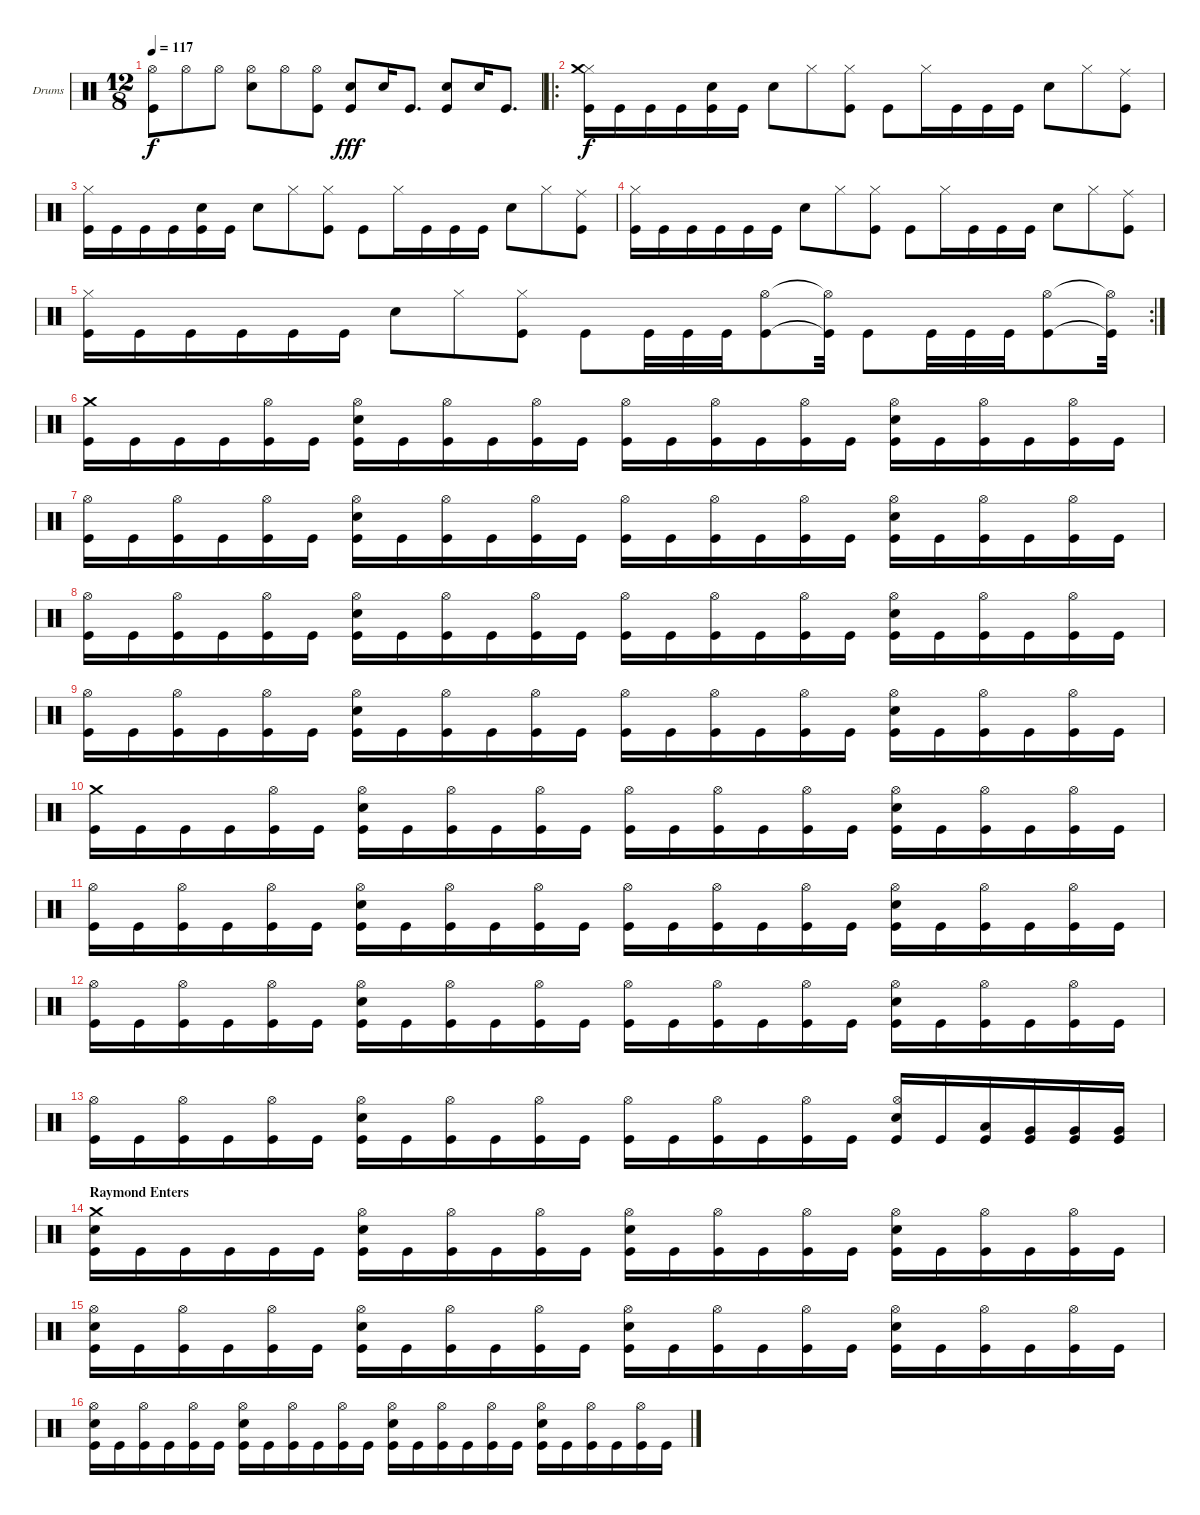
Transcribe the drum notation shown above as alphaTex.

\defaultSystemsLayout 4
\bracketExtendMode groupsimilarinstruments
\firstSystemTrackNameOrientation horizontal
\otherSystemsTrackNameOrientation horizontal
\track ("Drumkit" "Drums") {instrument percussion}
\staff {score}
\articulation defaults
\ts (12 8)
\tempo 117
\clef neutral
\scale
0.333333
\ks c
("Kick (hit)" "Hi-Hat (open)").8{dy f} "Hi-Hat (open)".8 "Hi-Hat (open)".8 ("Snare (hit) 2" "Hi-Hat (open)").8 "Hi-Hat (open)".8 ("Hi-Hat (open)" "Kick (hit)").8 ("Snare (hit) 2" "Kick (hit)").8{dy fff} "Snare (hit) 2".16 "Kick (hit)".8{d} ("Snare (hit) 2" "Kick (hit)").8 "Snare (hit) 2".16 "Kick (hit)".8{d} |
\ro
\scale
0.333333 ("Kick (hit)" "Hi-Hat (closed)" "Crash medium (hit)").16{dy f} "Kick (hit)".16 "Kick (hit)".16 "Kick (hit)".16 ("Kick (hit)" "Snare (hit) 2").16 "Kick (hit)".16 "Snare (hit) 2".8 "Hi-Hat (closed)".8 ("Hi-Hat (closed)" "Kick (hit)").8 "Kick (hit)".8 "Hi-Hat (closed)".16 "Kick (hit)".16 "Kick (hit)".16 "Kick (hit)".16 "Snare (hit) 2".8 "Hi-Hat (closed)".8 ("Kick (hit)" "Ride (middle)").8 |
\scale
0.333333 ("Kick (hit)" "Hi-Hat (closed)").16 "Kick (hit)".16 "Kick (hit)".16 "Kick (hit)".16 ("Kick (hit)" "Snare (hit) 2").16 "Kick (hit)".16 "Snare (hit) 2".8 "Hi-Hat (closed)".8 ("Hi-Hat (closed)" "Kick (hit)").8 "Kick (hit)".8 "Hi-Hat (closed)".16 "Kick (hit)".16 "Kick (hit)".16 "Kick (hit)".16 "Snare (hit) 2".8 "Hi-Hat (closed)".8 ("Kick (hit)" "Ride (middle)").8 |
\scale
0.333333 ("Kick (hit)" "Hi-Hat (closed)").16 "Kick (hit)".16 "Kick (hit)".16 "Kick (hit)".16 "Kick (hit)".16 "Kick (hit)".16 "Snare (hit) 2".8 "Hi-Hat (closed)".8 ("Hi-Hat (closed)" "Kick (hit)").8 "Kick (hit)".8 "Hi-Hat (closed)".16 "Kick (hit)".16 "Kick (hit)".16 "Kick (hit)".16 "Snare (hit) 2".8 "Hi-Hat (closed)".8 ("Kick (hit)" "Ride (middle)").8 |
\rc 2
\scale
0.333333 ("Kick (hit)" "Hi-Hat (closed)").16 "Kick (hit)".16 "Kick (hit)".16 "Kick (hit)".16 "Kick (hit)".16 "Kick (hit)".16 "Snare (hit) 2".8 "Hi-Hat (closed)".8 ("Hi-Hat (closed)" "Kick (hit)").8 "Kick (hit)".8 "Kick (hit)".32 "Kick (hit)".32 "Kick (hit)".32 ("Kick (hit)" "Hi-Hat (open)").8 ("Kick (hit)"{t} "Hi-Hat (open)"{t}).32 "Kick (hit)".8 "Kick (hit)".32 "Kick (hit)".32 "Kick (hit)".32 ("Kick (hit)" "Hi-Hat (open)").8 ("Kick (hit)"{t} "Hi-Hat (open)"{t}).32 |
\scale
0.333333 ("Kick (hit)" "Crash medium (hit)").16 "Kick (hit)".16 "Kick (hit)".16 "Kick (hit)".16 ("Kick (hit)" "Hi-Hat (open)").16 "Kick (hit)".16 ("Kick (hit)" "Snare (hit) 2" "Hi-Hat (open)").16 "Kick (hit)".16 ("Kick (hit)" "Hi-Hat (open)").16 "Kick (hit)".16 ("Kick (hit)" "Hi-Hat (open)").16 "Kick (hit)".16 ("Kick (hit)" "Hi-Hat (open)").16 "Kick (hit)".16 ("Kick (hit)" "Hi-Hat (open)").16 "Kick (hit)".16 ("Kick (hit)" "Hi-Hat (open)").16 "Kick (hit)".16 ("Kick (hit)" "Snare (hit) 2" "Hi-Hat (open)").16 "Kick (hit)".16 ("Kick (hit)" "Hi-Hat (open)").16 "Kick (hit)".16 ("Kick (hit)" "Hi-Hat (open)").16 "Kick (hit)".16 |
\scale
0.333333 ("Kick (hit)" "Hi-Hat (open)").16 "Kick (hit)".16 ("Kick (hit)" "Hi-Hat (open)").16 "Kick (hit)".16 ("Kick (hit)" "Hi-Hat (open)").16 "Kick (hit)".16 ("Kick (hit)" "Snare (hit) 2" "Hi-Hat (open)").16 "Kick (hit)".16 ("Kick (hit)" "Hi-Hat (open)").16 "Kick (hit)".16 ("Kick (hit)" "Hi-Hat (open)").16 "Kick (hit)".16 ("Kick (hit)" "Hi-Hat (open)").16 "Kick (hit)".16 ("Kick (hit)" "Hi-Hat (open)").16 "Kick (hit)".16 ("Kick (hit)" "Hi-Hat (open)").16 "Kick (hit)".16 ("Kick (hit)" "Snare (hit) 2" "Hi-Hat (open)").16 "Kick (hit)".16 ("Kick (hit)" "Hi-Hat (open)").16 "Kick (hit)".16 ("Kick (hit)" "Hi-Hat (open)").16 "Kick (hit)".16 |
\scale
0.333333 ("Kick (hit)" "Hi-Hat (open)").16 "Kick (hit)".16 ("Kick (hit)" "Hi-Hat (open)").16 "Kick (hit)".16 ("Kick (hit)" "Hi-Hat (open)").16 "Kick (hit)".16 ("Kick (hit)" "Snare (hit) 2" "Hi-Hat (open)").16 "Kick (hit)".16 ("Kick (hit)" "Hi-Hat (open)").16 "Kick (hit)".16 ("Kick (hit)" "Hi-Hat (open)").16 "Kick (hit)".16 ("Kick (hit)" "Hi-Hat (open)").16 "Kick (hit)".16 ("Kick (hit)" "Hi-Hat (open)").16 "Kick (hit)".16 ("Kick (hit)" "Hi-Hat (open)").16 "Kick (hit)".16 ("Kick (hit)" "Snare (hit) 2" "Hi-Hat (open)").16 "Kick (hit)".16 ("Kick (hit)" "Hi-Hat (open)").16 "Kick (hit)".16 ("Kick (hit)" "Hi-Hat (open)").16 "Kick (hit)".16 |
\scale
0.333333 ("Kick (hit)" "Hi-Hat (open)").16 "Kick (hit)".16 ("Kick (hit)" "Hi-Hat (open)").16 "Kick (hit)".16 ("Kick (hit)" "Hi-Hat (open)").16 "Kick (hit)".16 ("Kick (hit)" "Snare (hit) 2" "Hi-Hat (open)").16 "Kick (hit)".16 ("Kick (hit)" "Hi-Hat (open)").16 "Kick (hit)".16 ("Kick (hit)" "Hi-Hat (open)").16 "Kick (hit)".16 ("Kick (hit)" "Hi-Hat (open)").16 "Kick (hit)".16 ("Kick (hit)" "Hi-Hat (open)").16 "Kick (hit)".16 ("Kick (hit)" "Hi-Hat (open)").16 "Kick (hit)".16 ("Kick (hit)" "Snare (hit) 2" "Hi-Hat (open)").16 "Kick (hit)".16 ("Kick (hit)" "Hi-Hat (open)").16 "Kick (hit)".16 ("Kick (hit)" "Hi-Hat (open)").16 "Kick (hit)".16 |
\scale
0.333333 ("Kick (hit)" "Crash medium (hit)").16 "Kick (hit)".16 "Kick (hit)".16 "Kick (hit)".16 ("Kick (hit)" "Hi-Hat (open)").16 "Kick (hit)".16 ("Kick (hit)" "Snare (hit) 2" "Hi-Hat (open)").16 "Kick (hit)".16 ("Kick (hit)" "Hi-Hat (open)").16 "Kick (hit)".16 ("Kick (hit)" "Hi-Hat (open)").16 "Kick (hit)".16 ("Kick (hit)" "Hi-Hat (open)").16 "Kick (hit)".16 ("Kick (hit)" "Hi-Hat (open)").16 "Kick (hit)".16 ("Kick (hit)" "Hi-Hat (open)").16 "Kick (hit)".16 ("Kick (hit)" "Snare (hit) 2" "Hi-Hat (open)").16 "Kick (hit)".16 ("Kick (hit)" "Hi-Hat (open)").16 "Kick (hit)".16 ("Kick (hit)" "Hi-Hat (open)").16 "Kick (hit)".16 |
\scale
0.333333 ("Kick (hit)" "Hi-Hat (open)").16 "Kick (hit)".16 ("Kick (hit)" "Hi-Hat (open)").16 "Kick (hit)".16 ("Kick (hit)" "Hi-Hat (open)").16 "Kick (hit)".16 ("Kick (hit)" "Snare (hit) 2" "Hi-Hat (open)").16 "Kick (hit)".16 ("Kick (hit)" "Hi-Hat (open)").16 "Kick (hit)".16 ("Kick (hit)" "Hi-Hat (open)").16 "Kick (hit)".16 ("Kick (hit)" "Hi-Hat (open)").16 "Kick (hit)".16 ("Kick (hit)" "Hi-Hat (open)").16 "Kick (hit)".16 ("Kick (hit)" "Hi-Hat (open)").16 "Kick (hit)".16 ("Kick (hit)" "Snare (hit) 2" "Hi-Hat (open)").16 "Kick (hit)".16 ("Kick (hit)" "Hi-Hat (open)").16 "Kick (hit)".16 ("Kick (hit)" "Hi-Hat (open)").16 "Kick (hit)".16 |
\scale
0.333333 ("Kick (hit)" "Hi-Hat (open)").16 "Kick (hit)".16 ("Kick (hit)" "Hi-Hat (open)").16 "Kick (hit)".16 ("Kick (hit)" "Hi-Hat (open)").16 "Kick (hit)".16 ("Kick (hit)" "Snare (hit) 2" "Hi-Hat (open)").16 "Kick (hit)".16 ("Kick (hit)" "Hi-Hat (open)").16 "Kick (hit)".16 ("Kick (hit)" "Hi-Hat (open)").16 "Kick (hit)".16 ("Kick (hit)" "Hi-Hat (open)").16 "Kick (hit)".16 ("Kick (hit)" "Hi-Hat (open)").16 "Kick (hit)".16 ("Kick (hit)" "Hi-Hat (open)").16 "Kick (hit)".16 ("Kick (hit)" "Snare (hit) 2" "Hi-Hat (open)").16 "Kick (hit)".16 ("Kick (hit)" "Hi-Hat (open)").16 "Kick (hit)".16 ("Kick (hit)" "Hi-Hat (open)").16 "Kick (hit)".16 |
\scale
0.333333 ("Kick (hit)" "Hi-Hat (open)").16 "Kick (hit)".16 ("Kick (hit)" "Hi-Hat (open)").16 "Kick (hit)".16 ("Kick (hit)" "Hi-Hat (open)").16 "Kick (hit)".16 ("Kick (hit)" "Snare (hit) 2" "Hi-Hat (open)").16 "Kick (hit)".16 ("Kick (hit)" "Hi-Hat (open)").16 "Kick (hit)".16 ("Kick (hit)" "Hi-Hat (open)").16 "Kick (hit)".16 ("Kick (hit)" "Hi-Hat (open)").16 "Kick (hit)".16 ("Kick (hit)" "Hi-Hat (open)").16 "Kick (hit)".16 ("Kick (hit)" "Hi-Hat (open)").16 "Kick (hit)".16 ("Kick (hit)" "Snare (hit) 2" "Hi-Hat (open)").16 "Kick (hit)".16 ("Kick (hit)" "Low Tom (hit)").16 ("Kick (hit)" "Very Low Tom (hit)").16 ("Kick (hit)" "Very Low Tom (hit)").16 ("Kick (hit)" "Very Low Tom (hit)").16 |
\section ("" "Raymond Enters")
\scale
0.333333 ("Kick (hit)" "Snare (hit) 2" "Crash medium (hit)").16 "Kick (hit)".16 "Kick (hit)".16 "Kick (hit)".16 "Kick (hit)".16 "Kick (hit)".16 ("Kick (hit)" "Snare (hit) 2" "Hi-Hat (open)").16 "Kick (hit)".16 ("Kick (hit)" "Hi-Hat (open)").16 "Kick (hit)".16 ("Kick (hit)" "Hi-Hat (open)").16 "Kick (hit)".16 ("Kick (hit)" "Snare (hit) 2" "Hi-Hat (open)").16 "Kick (hit)".16 ("Kick (hit)" "Hi-Hat (open)").16 "Kick (hit)".16 ("Kick (hit)" "Hi-Hat (open)").16 "Kick (hit)".16 ("Kick (hit)" "Snare (hit) 2" "Hi-Hat (open)").16 "Kick (hit)".16 ("Kick (hit)" "Hi-Hat (open)").16 "Kick (hit)".16 ("Kick (hit)" "Hi-Hat (open)").16 "Kick (hit)".16 |
\scale
0.333333 ("Kick (hit)" "Snare (hit) 2" "Hi-Hat (open)").16 "Kick (hit)".16 ("Kick (hit)" "Hi-Hat (open)").16 "Kick (hit)".16 ("Kick (hit)" "Hi-Hat (open)").16 "Kick (hit)".16 ("Kick (hit)" "Snare (hit) 2" "Hi-Hat (open)").16 "Kick (hit)".16 ("Kick (hit)" "Hi-Hat (open)").16 "Kick (hit)".16 ("Kick (hit)" "Hi-Hat (open)").16 "Kick (hit)".16 ("Kick (hit)" "Snare (hit) 2" "Hi-Hat (open)").16 "Kick (hit)".16 ("Kick (hit)" "Hi-Hat (open)").16 "Kick (hit)".16 ("Kick (hit)" "Hi-Hat (open)").16 "Kick (hit)".16 ("Kick (hit)" "Snare (hit) 2" "Hi-Hat (open)").16 "Kick (hit)".16 ("Kick (hit)" "Hi-Hat (open)").16 "Kick (hit)".16 ("Kick (hit)" "Hi-Hat (open)").16 "Kick (hit)".16 |
\scale
0.333333 ("Kick (hit)" "Snare (hit) 2" "Hi-Hat (open)").16 "Kick (hit)".16 ("Kick (hit)" "Hi-Hat (open)").16 "Kick (hit)".16 ("Kick (hit)" "Hi-Hat (open)").16 "Kick (hit)".16 ("Kick (hit)" "Snare (hit) 2" "Hi-Hat (open)").16 "Kick (hit)".16 ("Kick (hit)" "Hi-Hat (open)").16 "Kick (hit)".16 ("Kick (hit)" "Hi-Hat (open)").16 "Kick (hit)".16 ("Kick (hit)" "Snare (hit) 2" "Hi-Hat (open)").16 "Kick (hit)".16 ("Kick (hit)" "Hi-Hat (open)").16 "Kick (hit)".16 ("Kick (hit)" "Hi-Hat (open)").16 "Kick (hit)".16 ("Kick (hit)" "Snare (hit) 2" "Hi-Hat (open)").16 "Kick (hit)".16 ("Kick (hit)" "Hi-Hat (open)").16 "Kick (hit)".16 ("Kick (hit)" "Hi-Hat (open)").16 "Kick (hit)".16
